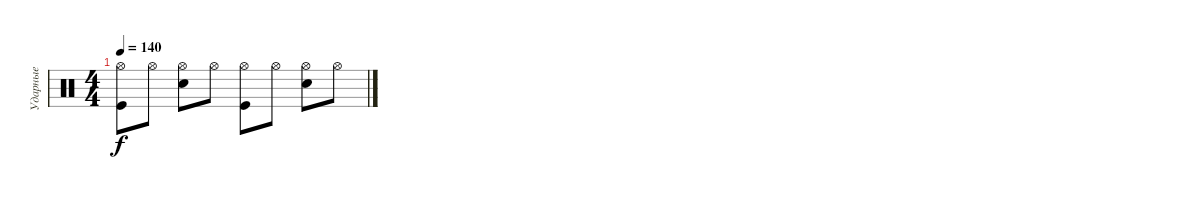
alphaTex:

\track ("Ударные" "Ударные") {instrument percussion}
\staff {score}
\articulation defaults
\ts (4 4)
\tempo 140
\clef neutral
\ks c
("Hi-Hat (open)" "Kick (hit)").8{dy f} "Hi-Hat (open)".8 ("Hi-Hat (open)" "Snare (hit) 2").8 "Hi-Hat (open)".8 ("Hi-Hat (open)" "Kick (hit)").8 "Hi-Hat (open)".8 ("Hi-Hat (open)" "Snare (hit) 2").8 "Hi-Hat (open)".8
